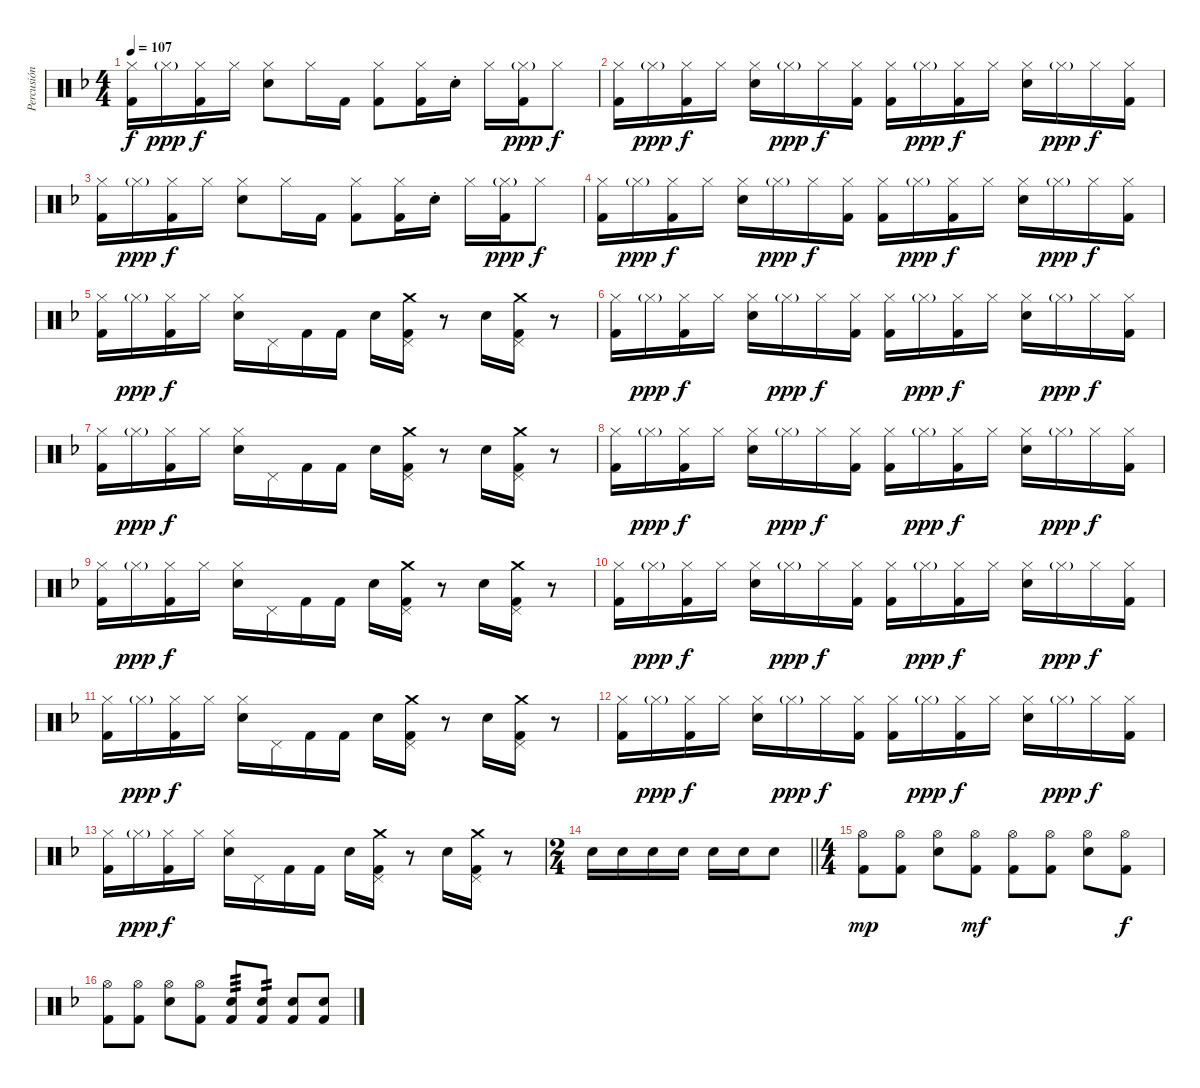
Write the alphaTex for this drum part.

\track ("Percusión" "Percusión") {instrument percussion}
\staff {score}
\articulation defaults
\ts (4 4)
\tempo 107
\clef neutral
\ks f
("Hi-Hat (closed)" "Kick (hit) 2").16{dy f} "Hi-Hat (closed)"{g}.16{dy ppp} ("Hi-Hat (closed)" "Kick (hit) 2").16{dy f} "Hi-Hat (closed)".16 ("Hi-Hat (closed)" "Snare (hit) 2").8 "Hi-Hat (closed)".16 "Kick (hit) 2".16 ("Hi-Hat (closed)" "Kick (hit) 2").8 ("Hi-Hat (closed)" "Kick (hit) 2").16 "Snare (hit) 2"{st}.16 "Hi-Hat (closed)".16 ("Hi-Hat (closed)"{g} "Kick (hit) 2").16{dy ppp} "Hi-Hat (closed)".8{dy f} |
("Hi-Hat (closed)" "Kick (hit) 2").16 "Hi-Hat (closed)"{g}.16{dy ppp} ("Hi-Hat (closed)" "Kick (hit) 2").16{dy f} "Hi-Hat (closed)".16 ("Hi-Hat (closed)" "Snare (hit) 2").16 "Hi-Hat (closed)"{g}.16{dy ppp} "Hi-Hat (closed)".16{dy f} ("Hi-Hat (closed)" "Kick (hit) 2").16 ("Hi-Hat (closed)" "Kick (hit) 2").16 "Hi-Hat (closed)"{g}.16{dy ppp} ("Hi-Hat (closed)" "Kick (hit) 2").16{dy f} "Hi-Hat (closed)".16 ("Hi-Hat (closed)" "Snare (hit) 2").16 "Hi-Hat (closed)"{g}.16{dy ppp} "Hi-Hat (closed)".16{dy f} ("Hi-Hat (closed)" "Kick (hit) 2").16 |
("Hi-Hat (closed)" "Kick (hit) 2").16 "Hi-Hat (closed)"{g}.16{dy ppp} ("Hi-Hat (closed)" "Kick (hit) 2").16{dy f} "Hi-Hat (closed)".16 ("Hi-Hat (closed)" "Snare (hit) 2").8 "Hi-Hat (closed)".16 "Kick (hit) 2".16 ("Hi-Hat (closed)" "Kick (hit) 2").8 ("Hi-Hat (closed)" "Kick (hit) 2").16 "Snare (hit) 2"{st}.16 "Hi-Hat (closed)".16 ("Hi-Hat (closed)"{g} "Kick (hit) 2").16{dy ppp} "Hi-Hat (closed)".8{dy f} |
("Hi-Hat (closed)" "Kick (hit) 2").16 "Hi-Hat (closed)"{g}.16{dy ppp} ("Hi-Hat (closed)" "Kick (hit) 2").16{dy f} "Hi-Hat (closed)".16 ("Hi-Hat (closed)" "Snare (hit) 2").16 "Hi-Hat (closed)"{g}.16{dy ppp} "Hi-Hat (closed)".16{dy f} ("Hi-Hat (closed)" "Kick (hit) 2").16 ("Hi-Hat (closed)" "Kick (hit) 2").16 "Hi-Hat (closed)"{g}.16{dy ppp} ("Hi-Hat (closed)" "Kick (hit) 2").16{dy f} "Hi-Hat (closed)".16 ("Hi-Hat (closed)" "Snare (hit) 2").16 "Hi-Hat (closed)"{g}.16{dy ppp} "Hi-Hat (closed)".16{dy f} ("Hi-Hat (closed)" "Kick (hit) 2").16 |
("Hi-Hat (closed)" "Kick (hit) 2").16 "Hi-Hat (closed)"{g}.16{dy ppp} ("Hi-Hat (closed)" "Kick (hit) 2").16{dy f} "Hi-Hat (closed)".16 ("Hi-Hat (closed)" "Snare (hit) 2").16 "Pedal Hi-Hat (hit)".16 "Kick (hit) 2".16 "Kick (hit) 2".16 "Snare (hit) 2".16 ("Crash medium (hit)" "Pedal Hi-Hat (hit)" "Kick (hit) 2").16 r.8 "Snare (hit) 2".16 ("Crash medium (hit)" "Pedal Hi-Hat (hit)" "Kick (hit) 2").16 r.8 |
("Hi-Hat (closed)" "Kick (hit) 2").16 "Hi-Hat (closed)"{g}.16{dy ppp} ("Hi-Hat (closed)" "Kick (hit) 2").16{dy f} "Hi-Hat (closed)".16 ("Hi-Hat (closed)" "Snare (hit) 2").16 "Hi-Hat (closed)"{g}.16{dy ppp} "Hi-Hat (closed)".16{dy f} ("Hi-Hat (closed)" "Kick (hit) 2").16 ("Hi-Hat (closed)" "Kick (hit) 2").16 "Hi-Hat (closed)"{g}.16{dy ppp} ("Hi-Hat (closed)" "Kick (hit) 2").16{dy f} "Hi-Hat (closed)".16 ("Hi-Hat (closed)" "Snare (hit) 2").16 "Hi-Hat (closed)"{g}.16{dy ppp} "Hi-Hat (closed)".16{dy f} ("Hi-Hat (closed)" "Kick (hit) 2").16 |
("Hi-Hat (closed)" "Kick (hit) 2").16 "Hi-Hat (closed)"{g}.16{dy ppp} ("Hi-Hat (closed)" "Kick (hit) 2").16{dy f} "Hi-Hat (closed)".16 ("Hi-Hat (closed)" "Snare (hit) 2").16 "Pedal Hi-Hat (hit)".16 "Kick (hit) 2".16 "Kick (hit) 2".16 "Snare (hit) 2".16 ("Crash medium (hit)" "Pedal Hi-Hat (hit)" "Kick (hit) 2").16 r.8 "Snare (hit) 2".16 ("Crash medium (hit)" "Pedal Hi-Hat (hit)" "Kick (hit) 2").16 r.8 |
("Hi-Hat (closed)" "Kick (hit) 2").16 "Hi-Hat (closed)"{g}.16{dy ppp} ("Hi-Hat (closed)" "Kick (hit) 2").16{dy f} "Hi-Hat (closed)".16 ("Hi-Hat (closed)" "Snare (hit) 2").16 "Hi-Hat (closed)"{g}.16{dy ppp} "Hi-Hat (closed)".16{dy f} ("Hi-Hat (closed)" "Kick (hit) 2").16 ("Hi-Hat (closed)" "Kick (hit) 2").16 "Hi-Hat (closed)"{g}.16{dy ppp} ("Hi-Hat (closed)" "Kick (hit) 2").16{dy f} "Hi-Hat (closed)".16 ("Hi-Hat (closed)" "Snare (hit) 2").16 "Hi-Hat (closed)"{g}.16{dy ppp} "Hi-Hat (closed)".16{dy f} ("Hi-Hat (closed)" "Kick (hit) 2").16 |
("Hi-Hat (closed)" "Kick (hit) 2").16 "Hi-Hat (closed)"{g}.16{dy ppp} ("Hi-Hat (closed)" "Kick (hit) 2").16{dy f} "Hi-Hat (closed)".16 ("Hi-Hat (closed)" "Snare (hit) 2").16 "Pedal Hi-Hat (hit)".16 "Kick (hit) 2".16 "Kick (hit) 2".16 "Snare (hit) 2".16 ("Crash medium (hit)" "Pedal Hi-Hat (hit)" "Kick (hit) 2").16 r.8 "Snare (hit) 2".16 ("Crash medium (hit)" "Pedal Hi-Hat (hit)" "Kick (hit) 2").16 r.8 |
("Hi-Hat (closed)" "Kick (hit) 2").16 "Hi-Hat (closed)"{g}.16{dy ppp} ("Hi-Hat (closed)" "Kick (hit) 2").16{dy f} "Hi-Hat (closed)".16 ("Hi-Hat (closed)" "Snare (hit) 2").16 "Hi-Hat (closed)"{g}.16{dy ppp} "Hi-Hat (closed)".16{dy f} ("Hi-Hat (closed)" "Kick (hit) 2").16 ("Hi-Hat (closed)" "Kick (hit) 2").16 "Hi-Hat (closed)"{g}.16{dy ppp} ("Hi-Hat (closed)" "Kick (hit) 2").16{dy f} "Hi-Hat (closed)".16 ("Hi-Hat (closed)" "Snare (hit) 2").16 "Hi-Hat (closed)"{g}.16{dy ppp} "Hi-Hat (closed)".16{dy f} ("Hi-Hat (closed)" "Kick (hit) 2").16 |
("Hi-Hat (closed)" "Kick (hit) 2").16 "Hi-Hat (closed)"{g}.16{dy ppp} ("Hi-Hat (closed)" "Kick (hit) 2").16{dy f} "Hi-Hat (closed)".16 ("Hi-Hat (closed)" "Snare (hit) 2").16 "Pedal Hi-Hat (hit)".16 "Kick (hit) 2".16 "Kick (hit) 2".16 "Snare (hit) 2".16 ("Crash medium (hit)" "Pedal Hi-Hat (hit)" "Kick (hit) 2").16 r.8 "Snare (hit) 2".16 ("Crash medium (hit)" "Pedal Hi-Hat (hit)" "Kick (hit) 2").16 r.8 |
("Hi-Hat (closed)" "Kick (hit) 2").16 "Hi-Hat (closed)"{g}.16{dy ppp} ("Hi-Hat (closed)" "Kick (hit) 2").16{dy f} "Hi-Hat (closed)".16 ("Hi-Hat (closed)" "Snare (hit) 2").16 "Hi-Hat (closed)"{g}.16{dy ppp} "Hi-Hat (closed)".16{dy f} ("Hi-Hat (closed)" "Kick (hit) 2").16 ("Hi-Hat (closed)" "Kick (hit) 2").16 "Hi-Hat (closed)"{g}.16{dy ppp} ("Hi-Hat (closed)" "Kick (hit) 2").16{dy f} "Hi-Hat (closed)".16 ("Hi-Hat (closed)" "Snare (hit) 2").16 "Hi-Hat (closed)"{g}.16{dy ppp} "Hi-Hat (closed)".16{dy f} ("Hi-Hat (closed)" "Kick (hit) 2").16 |
("Hi-Hat (closed)" "Kick (hit) 2").16 "Hi-Hat (closed)"{g}.16{dy ppp} ("Hi-Hat (closed)" "Kick (hit) 2").16{dy f} "Hi-Hat (closed)".16 ("Hi-Hat (closed)" "Snare (hit) 2").16 "Pedal Hi-Hat (hit)".16 "Kick (hit) 2".16 "Kick (hit) 2".16 "Snare (hit) 2".16 ("Crash medium (hit)" "Pedal Hi-Hat (hit)" "Kick (hit) 2").16 r.8 "Snare (hit) 2".16 ("Crash medium (hit)" "Pedal Hi-Hat (hit)" "Kick (hit) 2").16 r.8 |
\ts (2 4)
\barLineRight lightlight "Snare (hit) 2".16 "Snare (hit) 2".16 "Snare (hit) 2".16 "Snare (hit) 2".16 "Snare (hit) 2".16 "Snare (hit) 2".16 "Snare (hit) 2".8
|
\ts (4 4)
("Hi-Hat (open)" "Kick (hit) 2").8{dy mp} ("Hi-Hat (open)" "Kick (hit) 2").8 ("Hi-Hat (open)" "Snare (hit) 2").8 ("Hi-Hat (open)" "Kick (hit) 2").8{dy mf} ("Hi-Hat (open)" "Kick (hit) 2").8 ("Hi-Hat (open)" "Kick (hit) 2").8 ("Hi-Hat (open)" "Snare (hit) 2").8 ("Hi-Hat (open)" "Kick (hit) 2").8{dy f} |
("Hi-Hat (open)" "Kick (hit) 2").8 ("Hi-Hat (open)" "Kick (hit) 2").8 ("Hi-Hat (open)" "Snare (hit) 2").8 ("Hi-Hat (open)" "Kick (hit) 2").8 ("Snare (hit) 2" "Kick (hit) 2").8{tp 3} ("Snare (hit) 2" "Kick (hit) 2").8{tp 2} ("Snare (hit) 2" "Kick (hit) 2").8 ("Snare (hit) 2" "Kick (hit) 2").8
